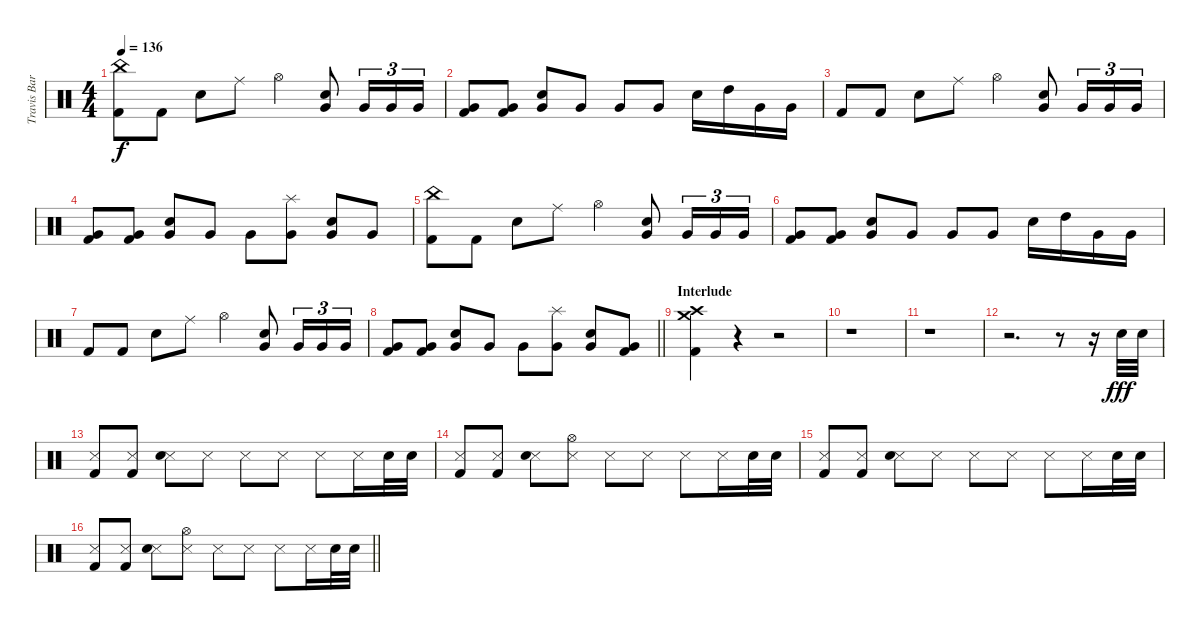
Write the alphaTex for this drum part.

\track ("Travis Barker - Drums" "Travis Bar") {instrument percussion}
\staff {score}
\articulation defaults
\ts (4 4)
\tempo 136
\clef neutral
\ks c
("China (hit)" "Kick (hit) 2").8{dy f} "Kick (hit) 2".8 "Snare (hit) 2".8 "Ride (middle)".8 "Hi-Hat (open)".4 ("Snare (hit) 2" "Very Low Tom (hit)").8 "Very Low Tom (hit)".16{tu (3 2)} "Very Low Tom (hit)".16{tu (3 2)} "Very Low Tom (hit)".16{tu (3 2)} |
("Very Low Tom (hit)" "Kick (hit) 2").8 ("Very Low Tom (hit)" "Kick (hit) 2").8 ("Snare (hit) 2" "Very Low Tom (hit)").8 "Very Low Tom (hit)".8 "Very Low Tom (hit)".8 "Very Low Tom (hit)".8 "Snare (hit) 2".16 "High Tom (hit)".16 "Very Low Tom (hit)".16 "Very Low Tom (hit)".16 |
"Kick (hit) 2".8 "Kick (hit) 2".8 "Snare (hit) 2".8 "Ride (middle)".8 "Hi-Hat (open)".4 ("Snare (hit) 2" "Very Low Tom (hit)").8 "Very Low Tom (hit)".16{tu (3 2)} "Very Low Tom (hit)".16{tu (3 2)} "Very Low Tom (hit)".16{tu (3 2)} |
("Very Low Tom (hit)" "Kick (hit) 2").8 ("Very Low Tom (hit)" "Kick (hit) 2").8 ("Snare (hit) 2" "Very Low Tom (hit)").8 "Very Low Tom (hit)".8 "Very Low Tom (hit)".8 ("Splash (hit)" "Very Low Tom (hit)").8 ("Snare (hit) 2" "Very Low Tom (hit)").8 "Very Low Tom (hit)".8 |
("China (hit)" "Kick (hit) 2").8 "Kick (hit) 2".8 "Snare (hit) 2".8 "Ride (middle)".8 "Hi-Hat (open)".4 ("Snare (hit) 2" "Very Low Tom (hit)").8 "Very Low Tom (hit)".16{tu (3 2)} "Very Low Tom (hit)".16{tu (3 2)} "Very Low Tom (hit)".16{tu (3 2)} |
("Very Low Tom (hit)" "Kick (hit) 2").8 ("Very Low Tom (hit)" "Kick (hit) 2").8 ("Snare (hit) 2" "Very Low Tom (hit)").8 "Very Low Tom (hit)".8 "Very Low Tom (hit)".8 "Very Low Tom (hit)".8 "Snare (hit) 2".16 "High Tom (hit)".16 "Very Low Tom (hit)".16 "Very Low Tom (hit)".16 |
"Kick (hit) 2".8 "Kick (hit) 2".8 "Snare (hit) 2".8 "Ride (middle)".8 "Hi-Hat (open)".4 ("Snare (hit) 2" "Very Low Tom (hit)").8 "Very Low Tom (hit)".16{tu (3 2)} "Very Low Tom (hit)".16{tu (3 2)} "Very Low Tom (hit)".16{tu (3 2)} |
\barLineRight lightlight
("Very Low Tom (hit)" "Kick (hit) 2").8 ("Very Low Tom (hit)" "Kick (hit) 2").8 ("Snare (hit) 2" "Very Low Tom (hit)").8 "Very Low Tom (hit)".8 "Very Low Tom (hit)".8 ("Splash (hit)" "Very Low Tom (hit)").8 ("Snare (hit) 2" "Very Low Tom (hit)").8 ("Very Low Tom (hit)" "Kick (hit) 2").8 |
\section ("" "Interlude")
("Crash high (hit)" "Crash medium (hit)" "Kick (hit) 2").4 r.4 r.2 |
r.1 |
r.1 |
r.2{d} r.8 r.16 "Snare (hit) 2".32{dy fff} "Snare (hit) 2".32 |
("Kick (hit) 2" "Snare (side stick) 3").8 ("Snare (side stick) 3" "Kick (hit) 2").8 ("Snare (side stick) 3" "Snare (hit) 2").8 "Snare (side stick) 3".8 "Snare (side stick) 3".8 "Snare (side stick) 3".8 "Snare (side stick) 3".8 "Snare (side stick) 3".16 "Snare (hit) 2".32 "Snare (hit) 2".32 |
("Kick (hit) 2" "Snare (side stick) 3").8 ("Snare (side stick) 3" "Kick (hit) 2").8 ("Snare (side stick) 3" "Snare (hit) 2").8 ("Snare (side stick) 3" "Hi-Hat (open)").8 "Snare (side stick) 3".8 "Snare (side stick) 3".8 "Snare (side stick) 3".8 "Snare (side stick) 3".16 "Snare (hit) 2".32 "Snare (hit) 2".32 |
("Kick (hit) 2" "Snare (side stick) 3").8 ("Snare (side stick) 3" "Kick (hit) 2").8 ("Snare (side stick) 3" "Snare (hit) 2").8 "Snare (side stick) 3".8 "Snare (side stick) 3".8 "Snare (side stick) 3".8 "Snare (side stick) 3".8 "Snare (side stick) 3".16 "Snare (hit) 2".32 "Snare (hit) 2".32 |
\barLineRight lightlight
("Kick (hit) 2" "Snare (side stick) 3").8 ("Snare (side stick) 3" "Kick (hit) 2").8 ("Snare (side stick) 3" "Snare (hit) 2").8 ("Snare (side stick) 3" "Hi-Hat (open)").8 "Snare (side stick) 3".8 "Snare (side stick) 3".8 "Snare (side stick) 3".8 "Snare (side stick) 3".16 "Snare (hit) 2".32 "Snare (hit) 2".32
